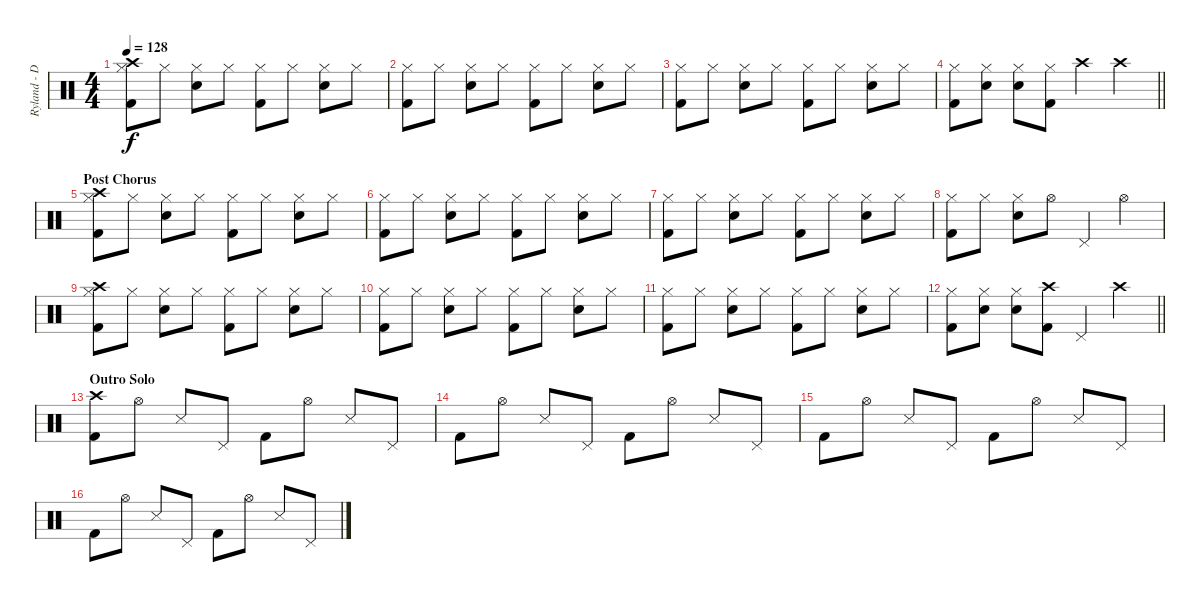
\track ("Ryland - Drums" "Ryland - D") {instrument percussion}
\staff {score}
\articulation defaults
\ts (4 4)
\tempo 128
\clef neutral
\ks c
("Hi-Hat (closed)" "Crash high (hit)" "Kick (hit) 2").8{dy f} "Hi-Hat (closed)".8 ("Hi-Hat (closed)" "Electric Snare (hit)").8 "Hi-Hat (closed)".8 ("Hi-Hat (closed)" "Kick (hit) 2").8 "Hi-Hat (closed)".8 ("Hi-Hat (closed)" "Electric Snare (hit)").8 "Hi-Hat (closed)".8 |
("Hi-Hat (closed)" "Kick (hit) 2").8 "Hi-Hat (closed)".8 ("Hi-Hat (closed)" "Electric Snare (hit)").8 "Hi-Hat (closed)".8 ("Hi-Hat (closed)" "Kick (hit) 2").8 "Hi-Hat (closed)".8 ("Hi-Hat (closed)" "Electric Snare (hit)").8 "Hi-Hat (closed)".8 |
("Hi-Hat (closed)" "Kick (hit) 2").8 "Hi-Hat (closed)".8 ("Hi-Hat (closed)" "Electric Snare (hit)").8 "Hi-Hat (closed)".8 ("Hi-Hat (closed)" "Kick (hit) 2").8 "Hi-Hat (closed)".8 ("Hi-Hat (closed)" "Electric Snare (hit)").8 "Hi-Hat (closed)".8 |
\barLineRight lightlight
("Hi-Hat (closed)" "Kick (hit) 2").8 ("Hi-Hat (closed)" "Electric Snare (hit)").8 ("Hi-Hat (closed)" "Electric Snare (hit)").8 ("Hi-Hat (closed)" "Kick (hit) 2").8 "Crash high (hit)".4 "Crash high (hit)".4 |
\section ("" "Post Chorus")
("Hi-Hat (closed)" "Crash high (hit)" "Kick (hit) 2").8 "Hi-Hat (closed)".8 ("Hi-Hat (closed)" "Electric Snare (hit)").8 "Hi-Hat (closed)".8 ("Hi-Hat (closed)" "Kick (hit) 2").8 "Hi-Hat (closed)".8 ("Hi-Hat (closed)" "Electric Snare (hit)").8 "Hi-Hat (closed)".8 |
("Hi-Hat (closed)" "Kick (hit) 2").8 "Hi-Hat (closed)".8 ("Hi-Hat (closed)" "Electric Snare (hit)").8 "Hi-Hat (closed)".8 ("Hi-Hat (closed)" "Kick (hit) 2").8 "Hi-Hat (closed)".8 ("Hi-Hat (closed)" "Electric Snare (hit)").8 "Hi-Hat (closed)".8 |
("Hi-Hat (closed)" "Kick (hit) 2").8 "Hi-Hat (closed)".8 ("Hi-Hat (closed)" "Electric Snare (hit)").8 "Hi-Hat (closed)".8 ("Hi-Hat (closed)" "Kick (hit) 2").8 "Hi-Hat (closed)".8 ("Hi-Hat (closed)" "Electric Snare (hit)").8 "Hi-Hat (closed)".8 |
("Hi-Hat (closed)" "Kick (hit) 2").8 "Hi-Hat (closed)".8 ("Hi-Hat (closed)" "Electric Snare (hit)").8 "Hi-Hat (open)".8 "Pedal Hi-Hat (hit)".4 "Hi-Hat (open)".4 |
("Hi-Hat (closed)" "Crash high (hit)" "Kick (hit) 2").8 "Hi-Hat (closed)".8 ("Hi-Hat (closed)" "Electric Snare (hit)").8 "Hi-Hat (closed)".8 ("Hi-Hat (closed)" "Kick (hit) 2").8 "Hi-Hat (closed)".8 ("Hi-Hat (closed)" "Electric Snare (hit)").8 "Hi-Hat (closed)".8 |
("Hi-Hat (closed)" "Kick (hit) 2").8 "Hi-Hat (closed)".8 ("Hi-Hat (closed)" "Electric Snare (hit)").8 "Hi-Hat (closed)".8 ("Hi-Hat (closed)" "Kick (hit) 2").8 "Hi-Hat (closed)".8 ("Hi-Hat (closed)" "Electric Snare (hit)").8 "Hi-Hat (closed)".8 |
("Hi-Hat (closed)" "Kick (hit) 2").8 "Hi-Hat (closed)".8 ("Hi-Hat (closed)" "Electric Snare (hit)").8 "Hi-Hat (closed)".8 ("Hi-Hat (closed)" "Kick (hit) 2").8 "Hi-Hat (closed)".8 ("Hi-Hat (closed)" "Electric Snare (hit)").8 "Hi-Hat (closed)".8 |
\barLineRight lightlight
("Hi-Hat (closed)" "Kick (hit) 2").8 ("Hi-Hat (closed)" "Electric Snare (hit)").8 ("Hi-Hat (closed)" "Electric Snare (hit)").8 ("Crash high (hit)" "Kick (hit) 2").8 "Pedal Hi-Hat (hit)".4 "Crash high (hit)".4 |
\section ("" "Outro Solo")
("Crash high (hit)" "Kick (hit) 2").8 "Hi-Hat (open)".8 "Snare (side stick) 3".8 "Pedal Hi-Hat (hit)".8 "Kick (hit) 2".8 "Hi-Hat (open)".8 "Snare (side stick) 3".8 "Pedal Hi-Hat (hit)".8 |
"Kick (hit) 2".8 "Hi-Hat (open)".8 "Snare (side stick) 3".8 "Pedal Hi-Hat (hit)".8 "Kick (hit) 2".8 "Hi-Hat (open)".8 "Snare (side stick) 3".8 "Pedal Hi-Hat (hit)".8 |
"Kick (hit) 2".8 "Hi-Hat (open)".8 "Snare (side stick) 3".8 "Pedal Hi-Hat (hit)".8 "Kick (hit) 2".8 "Hi-Hat (open)".8 "Snare (side stick) 3".8 "Pedal Hi-Hat (hit)".8 |
"Kick (hit) 2".8 "Hi-Hat (open)".8 "Snare (side stick) 3".8 "Pedal Hi-Hat (hit)".8 "Kick (hit) 2".8 "Hi-Hat (open)".8 "Snare (side stick) 3".8 "Pedal Hi-Hat (hit)".8
